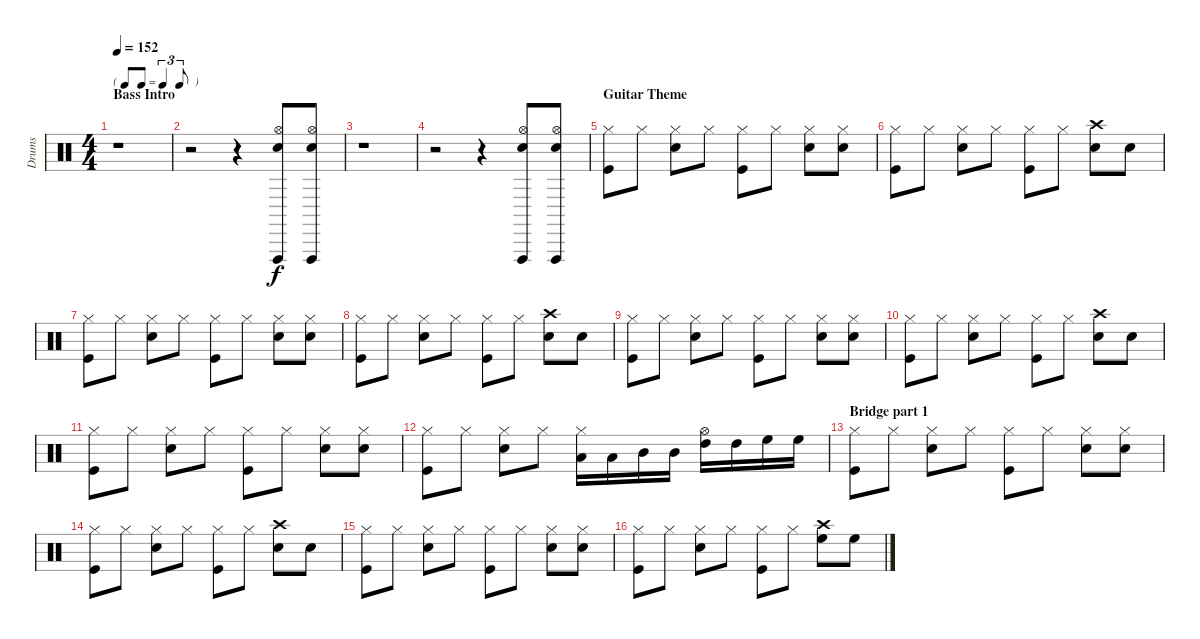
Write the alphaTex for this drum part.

\track ("Drums" "Drums") {instrument percussion}
\staff {score}
\articulation defaults
\ts (4 4)
\tf triplet8th
\section ("" "Bass Intro")
\tempo 152
\clef neutral
\ks c
r.1{dy f} |
r.2 r.4 ("Hi-Hat (open)" "Snare (hit) 2" "Vibraslap (hit)").8 ("Hi-Hat (open)" "Snare (hit) 2" "Vibraslap (hit)").8 |
r.1 |
r.2 r.4 ("Hi-Hat (open)" "Snare (hit) 2" "Vibraslap (hit)").8 ("Hi-Hat (open)" "Snare (hit) 2" "Vibraslap (hit)").8 |
\section ("" "Guitar Theme")
("Hi-Hat (closed)" "Kick (hit)").8 "Hi-Hat (closed)".8 ("Hi-Hat (closed)" "Snare (hit) 2").8 "Hi-Hat (closed)".8 ("Hi-Hat (closed)" "Kick (hit)").8 "Hi-Hat (closed)".8 ("Hi-Hat (closed)" "Snare (hit) 2").8 ("Hi-Hat (closed)" "Snare (hit) 2").8 |
("Hi-Hat (closed)" "Kick (hit)").8 "Hi-Hat (closed)".8 ("Hi-Hat (closed)" "Snare (hit) 2").8 "Hi-Hat (closed)".8 ("Hi-Hat (closed)" "Kick (hit)").8 "Hi-Hat (closed)".8 ("Crash high (hit)" "Snare (hit) 2").8 "Snare (hit) 2".8 |
("Hi-Hat (closed)" "Kick (hit)").8 "Hi-Hat (closed)".8 ("Hi-Hat (closed)" "Snare (hit) 2").8 "Hi-Hat (closed)".8 ("Hi-Hat (closed)" "Kick (hit)").8 "Hi-Hat (closed)".8 ("Hi-Hat (closed)" "Snare (hit) 2").8 ("Hi-Hat (closed)" "Snare (hit) 2").8 |
("Hi-Hat (closed)" "Kick (hit)").8 "Hi-Hat (closed)".8 ("Hi-Hat (closed)" "Snare (hit) 2").8 "Hi-Hat (closed)".8 ("Hi-Hat (closed)" "Kick (hit)").8 "Hi-Hat (closed)".8 ("Crash high (hit)" "Snare (hit) 2").8 "Snare (hit) 2".8 |
("Hi-Hat (closed)" "Kick (hit)").8 "Hi-Hat (closed)".8 ("Hi-Hat (closed)" "Snare (hit) 2").8 "Hi-Hat (closed)".8 ("Hi-Hat (closed)" "Kick (hit)").8 "Hi-Hat (closed)".8 ("Hi-Hat (closed)" "Snare (hit) 2").8 ("Hi-Hat (closed)" "Snare (hit) 2").8 |
("Hi-Hat (closed)" "Kick (hit)").8 "Hi-Hat (closed)".8 ("Hi-Hat (closed)" "Snare (hit) 2").8 "Hi-Hat (closed)".8 ("Hi-Hat (closed)" "Kick (hit)").8 "Hi-Hat (closed)".8 ("Crash high (hit)" "Snare (hit) 2").8 "Snare (hit) 2".8 |
("Hi-Hat (closed)" "Kick (hit)").8 "Hi-Hat (closed)".8 ("Hi-Hat (closed)" "Snare (hit) 2").8 "Hi-Hat (closed)".8 ("Hi-Hat (closed)" "Kick (hit)").8 "Hi-Hat (closed)".8 ("Hi-Hat (closed)" "Snare (hit) 2").8 ("Hi-Hat (closed)" "Snare (hit) 2").8 |
("Hi-Hat (closed)" "Kick (hit)").8 "Hi-Hat (closed)".8 ("Hi-Hat (closed)" "Snare (hit) 2").8 "Hi-Hat (closed)".8 ("Hi-Hat (closed)" "Low Tom (hit)").16 "Low Tom (hit)".16 "Mid Tom (hit)".16 "Mid Tom (hit)".16 ("Hi-Hat (open)" "High Tom (hit)").16 "High Tom (hit)".16 "High Floor Tom (hit)".16 "High Floor Tom (hit)".16 |
\section ("" "Bridge part 1")
("Hi-Hat (closed)" "Kick (hit)").8 "Hi-Hat (closed)".8 ("Hi-Hat (closed)" "Snare (hit) 2").8 "Hi-Hat (closed)".8 ("Hi-Hat (closed)" "Kick (hit)").8 "Hi-Hat (closed)".8 ("Hi-Hat (closed)" "Snare (hit) 2").8 ("Hi-Hat (closed)" "Snare (hit) 2").8 |
("Hi-Hat (closed)" "Kick (hit)").8 "Hi-Hat (closed)".8 ("Hi-Hat (closed)" "Snare (hit) 2").8 "Hi-Hat (closed)".8 ("Hi-Hat (closed)" "Kick (hit)").8 "Hi-Hat (closed)".8 ("Crash high (hit)" "Snare (hit) 2").8 "Snare (hit) 2".8 |
("Hi-Hat (closed)" "Kick (hit)").8 "Hi-Hat (closed)".8 ("Hi-Hat (closed)" "Snare (hit) 2").8 "Hi-Hat (closed)".8 ("Hi-Hat (closed)" "Kick (hit)").8 "Hi-Hat (closed)".8 ("Hi-Hat (closed)" "Snare (hit) 2").8 ("Hi-Hat (closed)" "Snare (hit) 2").8 |
("Hi-Hat (closed)" "Kick (hit)").8 "Hi-Hat (closed)".8 ("Hi-Hat (closed)" "Snare (hit) 2").8 "Hi-Hat (closed)".8 ("Hi-Hat (closed)" "Kick (hit)").8 "Hi-Hat (closed)".8 ("Crash high (hit)" "High Floor Tom (hit)").8 "High Floor Tom (hit)".8
